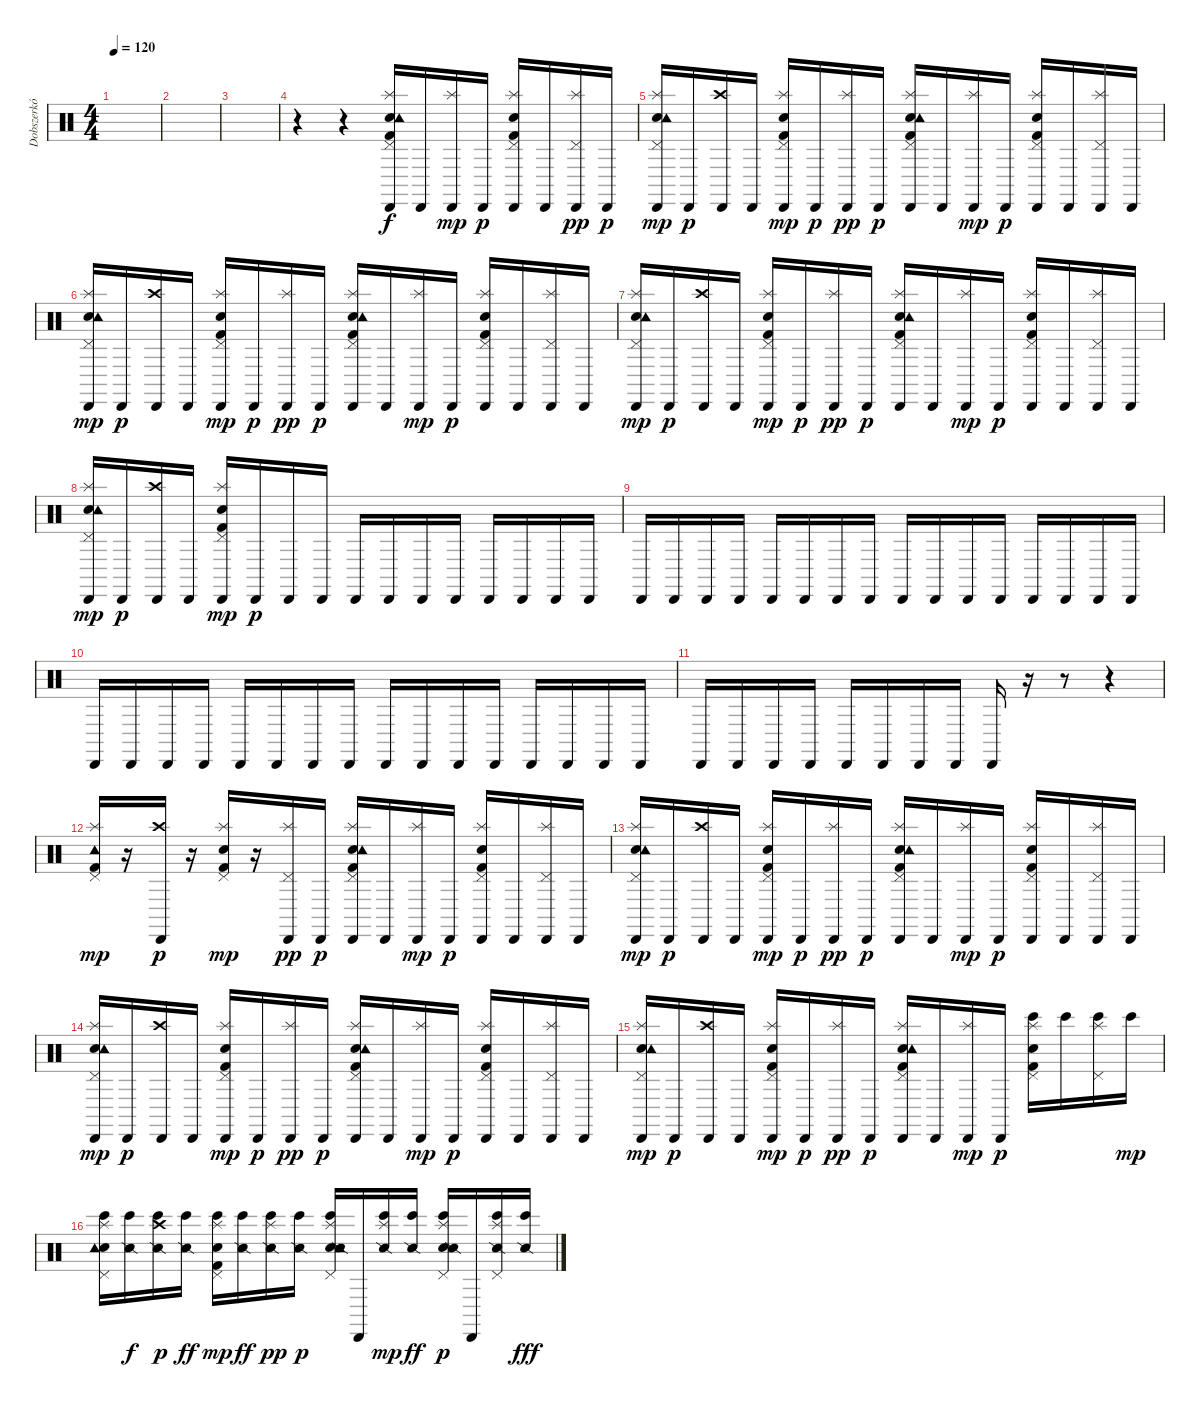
\track ("Dobszerkó" "Dobszerkó") {instrument percussion}
\staff {score}
\articulation defaults
\ts (4 4)
\tempo 120
\clef neutral
\ks c
|
|
|
r.4 r.4 ("Snare (hit) 2" "Cabasa (hit)" "Kick (hit) 2" "Tambourine (hit)" "Pedal Hi-Hat (hit)" "Splash (hit)").16 "Cabasa (hit)".16 ("Cabasa (hit)" "Splash (hit)").16{dy mp} "Cabasa (hit)".16{dy p} ("Electric Snare (hit)" "Cabasa (hit)" "Kick (hit) 2" "Pedal Hi-Hat (hit)" "Splash (hit)").16 "Cabasa (hit)".16 ("Cabasa (hit)" "Pedal Hi-Hat (hit)" "Splash (hit)").16{dy pp} "Cabasa (hit)".16{dy p} |
("Cabasa (hit)" "Snare (hit) 2" "Tambourine (hit)" "Pedal Hi-Hat (hit)" "Splash (hit)").16{dy mp} "Cabasa (hit)".16{dy p} ("Cabasa (hit)" "Crash high (hit)").16 "Cabasa (hit)".16 ("Electric Snare (hit)" "Cabasa (hit)" "Kick (hit) 2" "Pedal Hi-Hat (hit)" "Splash (hit)").16{dy mp} "Cabasa (hit)".16{dy p} ("Cabasa (hit)" "Splash (hit)").16{dy pp} "Cabasa (hit)".16{dy p} ("Snare (hit) 2" "Cabasa (hit)" "Kick (hit) 2" "Tambourine (hit)" "Pedal Hi-Hat (hit)" "Splash (hit)").16 "Cabasa (hit)".16 ("Cabasa (hit)" "Splash (hit)").16{dy mp} "Cabasa (hit)".16{dy p} ("Electric Snare (hit)" "Cabasa (hit)" "Kick (hit) 2" "Pedal Hi-Hat (hit)" "Splash (hit)").16 "Cabasa (hit)".16 ("Cabasa (hit)" "Pedal Hi-Hat (hit)" "Splash (hit)").16 "Cabasa (hit)".16 |
("Cabasa (hit)" "Snare (hit) 2" "Tambourine (hit)" "Pedal Hi-Hat (hit)" "Splash (hit)").16{dy mp} "Cabasa (hit)".16{dy p} ("Cabasa (hit)" "Crash high (hit)").16 "Cabasa (hit)".16 ("Electric Snare (hit)" "Cabasa (hit)" "Kick (hit) 2" "Pedal Hi-Hat (hit)" "Splash (hit)").16{dy mp} "Cabasa (hit)".16{dy p} ("Cabasa (hit)" "Splash (hit)").16{dy pp} "Cabasa (hit)".16{dy p} ("Snare (hit) 2" "Cabasa (hit)" "Kick (hit) 2" "Tambourine (hit)" "Pedal Hi-Hat (hit)" "Splash (hit)").16 "Cabasa (hit)".16 ("Cabasa (hit)" "Splash (hit)").16{dy mp} "Cabasa (hit)".16{dy p} ("Electric Snare (hit)" "Cabasa (hit)" "Kick (hit) 2" "Pedal Hi-Hat (hit)" "Splash (hit)").16 "Cabasa (hit)".16 ("Cabasa (hit)" "Pedal Hi-Hat (hit)" "Splash (hit)").16 "Cabasa (hit)".16 |
("Cabasa (hit)" "Snare (hit) 2" "Tambourine (hit)" "Pedal Hi-Hat (hit)" "Splash (hit)").16{dy mp} "Cabasa (hit)".16{dy p} ("Cabasa (hit)" "Crash high (hit)").16 "Cabasa (hit)".16 ("Electric Snare (hit)" "Cabasa (hit)" "Kick (hit) 2" "Pedal Hi-Hat (hit)" "Splash (hit)").16{dy mp} "Cabasa (hit)".16{dy p} ("Cabasa (hit)" "Splash (hit)").16{dy pp} "Cabasa (hit)".16{dy p} ("Snare (hit) 2" "Cabasa (hit)" "Kick (hit) 2" "Tambourine (hit)" "Pedal Hi-Hat (hit)" "Splash (hit)").16 "Cabasa (hit)".16 ("Cabasa (hit)" "Splash (hit)").16{dy mp} "Cabasa (hit)".16{dy p} ("Electric Snare (hit)" "Cabasa (hit)" "Kick (hit) 2" "Pedal Hi-Hat (hit)" "Splash (hit)").16 "Cabasa (hit)".16 ("Cabasa (hit)" "Pedal Hi-Hat (hit)" "Splash (hit)").16 "Cabasa (hit)".16 |
("Cabasa (hit)" "Snare (hit) 2" "Tambourine (hit)" "Pedal Hi-Hat (hit)" "Splash (hit)").16{dy mp} "Cabasa (hit)".16{dy p} ("Cabasa (hit)" "Crash high (hit)").16 "Cabasa (hit)".16 ("Electric Snare (hit)" "Cabasa (hit)" "Kick (hit) 2" "Pedal Hi-Hat (hit)" "Splash (hit)").16{dy mp} "Cabasa (hit)".16{dy p} "Cabasa (hit)".16 "Cabasa (hit)".16 "Cabasa (hit)".16 "Cabasa (hit)".16 "Cabasa (hit)".16 "Cabasa (hit)".16 "Cabasa (hit)".16 "Cabasa (hit)".16 "Cabasa (hit)".16 "Cabasa (hit)".16 |
"Cabasa (hit)".16 "Cabasa (hit)".16 "Cabasa (hit)".16 "Cabasa (hit)".16 "Cabasa (hit)".16 "Cabasa (hit)".16 "Cabasa (hit)".16 "Cabasa (hit)".16 "Cabasa (hit)".16 "Cabasa (hit)".16 "Cabasa (hit)".16 "Cabasa (hit)".16 "Cabasa (hit)".16 "Cabasa (hit)".16 "Cabasa (hit)".16 "Cabasa (hit)".16 |
"Cabasa (hit)".16 "Cabasa (hit)".16 "Cabasa (hit)".16 "Cabasa (hit)".16 "Cabasa (hit)".16 "Cabasa (hit)".16 "Cabasa (hit)".16 "Cabasa (hit)".16 "Cabasa (hit)".16 "Cabasa (hit)".16 "Cabasa (hit)".16 "Cabasa (hit)".16 "Cabasa (hit)".16 "Cabasa (hit)".16 "Cabasa (hit)".16 "Cabasa (hit)".16 |
"Cabasa (hit)".16 "Cabasa (hit)".16 "Cabasa (hit)".16 "Cabasa (hit)".16 "Cabasa (hit)".16 "Cabasa (hit)".16 "Cabasa (hit)".16 "Cabasa (hit)".16 "Cabasa (hit)".16 r.16 r.8 r.4 |
("Kick (hit) 2" "Tambourine (hit)" "Pedal Hi-Hat (hit)" "Splash (hit)").16{dy mp} r.16 ("Cabasa (hit)" "Crash high (hit)").16{dy p} r.16 ("Electric Snare (hit)" "Kick (hit) 2" "Pedal Hi-Hat (hit)" "Splash (hit)").16{dy mp} r.16 ("Cabasa (hit)" "Pedal Hi-Hat (hit)" "Splash (hit)").16{dy pp} "Cabasa (hit)".16{dy p} ("Snare (hit) 2" "Cabasa (hit)" "Kick (hit) 2" "Tambourine (hit)" "Pedal Hi-Hat (hit)" "Splash (hit)").16 "Cabasa (hit)".16 ("Cabasa (hit)" "Splash (hit)").16{dy mp} "Cabasa (hit)".16{dy p} ("Electric Snare (hit)" "Cabasa (hit)" "Kick (hit) 2" "Pedal Hi-Hat (hit)" "Splash (hit)").16 "Cabasa (hit)".16 ("Cabasa (hit)" "Pedal Hi-Hat (hit)" "Splash (hit)").16 "Cabasa (hit)".16 |
("Cabasa (hit)" "Snare (hit) 2" "Tambourine (hit)" "Pedal Hi-Hat (hit)" "Splash (hit)").16{dy mp} "Cabasa (hit)".16{dy p} ("Cabasa (hit)" "Crash high (hit)").16 "Cabasa (hit)".16 ("Electric Snare (hit)" "Cabasa (hit)" "Kick (hit) 2" "Pedal Hi-Hat (hit)" "Splash (hit)").16{dy mp} "Cabasa (hit)".16{dy p} ("Cabasa (hit)" "Splash (hit)").16{dy pp} "Cabasa (hit)".16{dy p} ("Snare (hit) 2" "Cabasa (hit)" "Kick (hit) 2" "Tambourine (hit)" "Pedal Hi-Hat (hit)" "Splash (hit)").16 "Cabasa (hit)".16 ("Cabasa (hit)" "Splash (hit)").16{dy mp} "Cabasa (hit)".16{dy p} ("Electric Snare (hit)" "Cabasa (hit)" "Kick (hit) 2" "Pedal Hi-Hat (hit)" "Splash (hit)").16 "Cabasa (hit)".16 ("Cabasa (hit)" "Pedal Hi-Hat (hit)" "Splash (hit)").16 "Cabasa (hit)".16 |
("Cabasa (hit)" "Snare (hit) 2" "Tambourine (hit)" "Pedal Hi-Hat (hit)" "Splash (hit)").16{dy mp} "Cabasa (hit)".16{dy p} ("Cabasa (hit)" "Crash high (hit)").16 "Cabasa (hit)".16 ("Electric Snare (hit)" "Cabasa (hit)" "Kick (hit) 2" "Pedal Hi-Hat (hit)" "Splash (hit)").16{dy mp} "Cabasa (hit)".16{dy p} ("Cabasa (hit)" "Splash (hit)").16{dy pp} "Cabasa (hit)".16{dy p} ("Snare (hit) 2" "Cabasa (hit)" "Kick (hit) 2" "Tambourine (hit)" "Pedal Hi-Hat (hit)" "Splash (hit)").16 "Cabasa (hit)".16 ("Cabasa (hit)" "Splash (hit)").16{dy mp} "Cabasa (hit)".16{dy p} ("Electric Snare (hit)" "Cabasa (hit)" "Kick (hit) 2" "Pedal Hi-Hat (hit)" "Splash (hit)").16 "Cabasa (hit)".16 ("Cabasa (hit)" "Pedal Hi-Hat (hit)" "Splash (hit)").16 "Cabasa (hit)".16 |
("Cabasa (hit)" "Snare (hit) 2" "Tambourine (hit)" "Pedal Hi-Hat (hit)" "Splash (hit)").16{dy mp} "Cabasa (hit)".16{dy p} ("Cabasa (hit)" "Crash high (hit)").16 "Cabasa (hit)".16 ("Electric Snare (hit)" "Cabasa (hit)" "Kick (hit) 2" "Pedal Hi-Hat (hit)" "Splash (hit)").16{dy mp} "Cabasa (hit)".16{dy p} ("Cabasa (hit)" "Splash (hit)").16{dy pp} "Cabasa (hit)".16{dy p} ("Snare (hit) 2" "Cabasa (hit)" "Kick (hit) 2" "Tambourine (hit)" "Pedal Hi-Hat (hit)" "Splash (hit)").16 "Cabasa (hit)".16 ("Cabasa (hit)" "Splash (hit)").16{dy mp} "Cabasa (hit)".16{dy p} ("Electric Snare (hit)" "Bongo High (hit)" "Kick (hit) 2" "Pedal Hi-Hat (hit)" "Splash (hit)").16 "Bongo High (hit)".16 ("Bongo High (hit)" "Pedal Hi-Hat (hit)" "Splash (hit)").16 "Bongo High (hit)".16{dy mp} |
("Bongo High (hit)" "Snare (hit) 2" "Tambourine (hit)" "Pedal Hi-Hat (hit)" "Splash (hit)").16 ("Bongo High (hit)" "Snare (side stick) 2").16{dy f} ("Bongo High (hit)" "Snare (side stick) 2" "Crash high (hit)").16{dy p} ("Bongo High (hit)" "Snare (side stick) 2").16{dy ff} ("Electric Snare (hit)" "Bongo High (hit)" "Kick (hit) 2" "Pedal Hi-Hat (hit)" "Splash (hit)").16{dy mp} ("Bongo High (hit)" "Snare (side stick) 2").16{dy ff} ("Bongo High (hit)" "Snare (side stick) 2" "Splash (hit)").16{dy pp} ("Bongo High (hit)" "Snare (side stick) 2").16{dy p} ("Snare (hit) 2" "Bongo High (hit)" "Snare (side stick) 2" "Tambourine (hit)" "Pedal Hi-Hat (hit)" "Splash (hit)").16 "Cabasa (hit)".16 ("Bongo High (hit)" "Snare (side stick) 2" "Splash (hit)").16{dy mp} ("Bongo High (hit)" "Snare (side stick) 2").16{dy ff} ("Electric Snare (hit)" "Bongo High (hit)" "Snare (side stick) 2" "Pedal Hi-Hat (hit)" "Splash (hit)").16{dy p} "Cabasa (hit)".16 ("Bongo High (hit)" "Snare (side stick) 2" "Pedal Hi-Hat (hit)" "Splash (hit)").16 ("Bongo High (hit)" "Snare (side stick) 2").16{dy fff}
